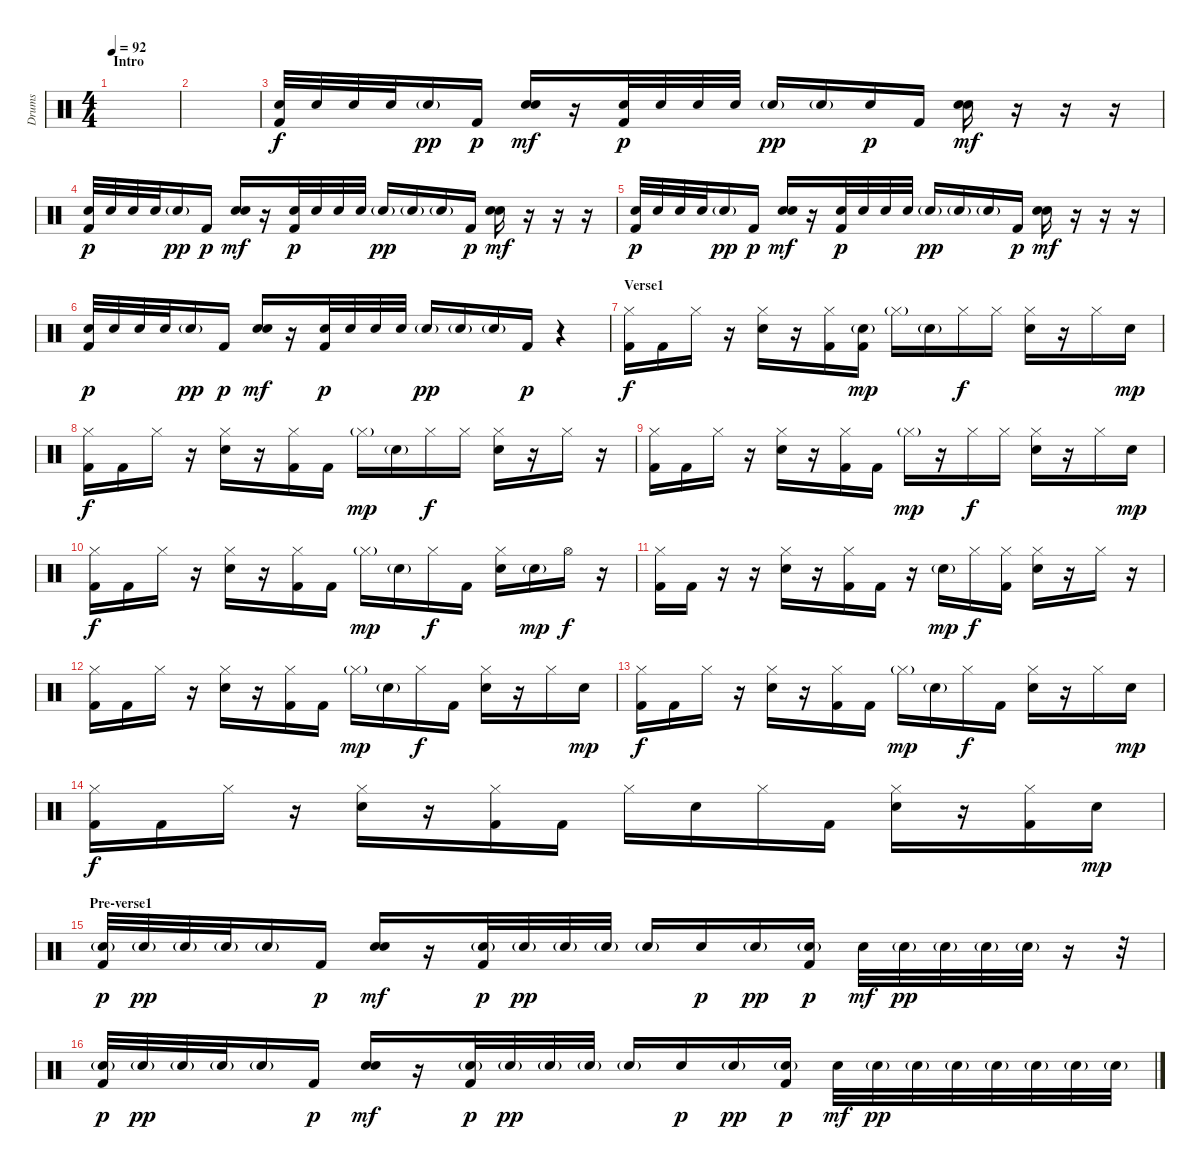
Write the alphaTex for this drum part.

\track ("Drums" "Drums") {instrument percussion}
\staff {score}
\articulation defaults
\ts (4 4)
\section ("" "Intro")
\tempo 92
\clef neutral
\ks c
|
|
("Electric Snare (hit)" "Kick (hit) 2").32 "Electric Snare (hit)".32 "Electric Snare (hit)".32 "Electric Snare (hit)".32 "Electric Snare (hit)"{g}.16{dy pp} "Kick (hit) 2".16{dy p} ("Electric Snare (hit)" "Electric Snare (hit)").16{dy mf} r.16 ("Electric Snare (hit)" "Kick (hit) 2").32{dy p} "Electric Snare (hit)".32 "Electric Snare (hit)".32 "Electric Snare (hit)".32 "Electric Snare (hit)"{g}.16{dy pp} "Electric Snare (hit)"{g}.16 "Electric Snare (hit)".16{dy p} "Kick (hit) 2".16 ("Electric Snare (hit)" "Electric Snare (hit)").16{dy mf} r.16 r.16 r.16 |
("Electric Snare (hit)" "Kick (hit) 2").32{dy p} "Electric Snare (hit)".32 "Electric Snare (hit)".32 "Electric Snare (hit)".32 "Electric Snare (hit)"{g}.16{dy pp} "Kick (hit) 2".16{dy p} ("Electric Snare (hit)" "Electric Snare (hit)").16{dy mf} r.16 ("Electric Snare (hit)" "Kick (hit) 2").32{dy p} "Electric Snare (hit)".32 "Electric Snare (hit)".32 "Electric Snare (hit)".32 "Electric Snare (hit)"{g}.16{dy pp} "Electric Snare (hit)"{g}.16 "Electric Snare (hit)"{g}.16 "Kick (hit) 2".16{dy p} ("Electric Snare (hit)" "Electric Snare (hit)").16{dy mf} r.16 r.16 r.16 |
("Electric Snare (hit)" "Kick (hit) 2").32{dy p} "Electric Snare (hit)".32 "Electric Snare (hit)".32 "Electric Snare (hit)".32 "Electric Snare (hit)"{g}.16{dy pp} "Kick (hit) 2".16{dy p} ("Electric Snare (hit)" "Electric Snare (hit)").16{dy mf} r.16 ("Electric Snare (hit)" "Kick (hit) 2").32{dy p} "Electric Snare (hit)".32 "Electric Snare (hit)".32 "Electric Snare (hit)".32 "Electric Snare (hit)"{g}.16{dy pp} "Electric Snare (hit)"{g}.16 "Electric Snare (hit)"{g}.16 "Kick (hit) 2".16{dy p} ("Electric Snare (hit)" "Electric Snare (hit)").16{dy mf} r.16 r.16 r.16 |
("Electric Snare (hit)" "Kick (hit) 2").32{dy p} "Electric Snare (hit)".32 "Electric Snare (hit)".32 "Electric Snare (hit)".32 "Electric Snare (hit)"{g}.16{dy pp} "Kick (hit) 2".16{dy p} ("Electric Snare (hit)" "Electric Snare (hit)").16{dy mf} r.16 ("Electric Snare (hit)" "Kick (hit) 2").32{dy p} "Electric Snare (hit)".32 "Electric Snare (hit)".32 "Electric Snare (hit)".32 "Electric Snare (hit)"{g}.16{dy pp} "Electric Snare (hit)"{g}.16 "Electric Snare (hit)"{g}.16 "Kick (hit) 2".16{dy p} r.4 |
\section ("" "Verse1")
("Hi-Hat (closed)" "Kick (hit) 2").16{dy f} "Kick (hit) 2".16 "Hi-Hat (closed)".16 r.16 ("Hi-Hat (closed)" "Snare (hit) 2").16 r.16 ("Hi-Hat (closed)" "Kick (hit) 2").16 ("Snare (hit) 2"{g} "Kick (hit) 2").16{dy mp} "Hi-Hat (closed)"{g}.16 "Snare (hit) 2"{g}.16 "Hi-Hat (closed)".16{dy f} "Hi-Hat (closed)".16 ("Hi-Hat (closed)" "Snare (hit) 2").16 r.16 "Hi-Hat (closed)".16 "Snare (hit) 2".16{dy mp} |
("Hi-Hat (closed)" "Kick (hit) 2").16{dy f} "Kick (hit) 2".16 "Hi-Hat (closed)".16 r.16 ("Hi-Hat (closed)" "Snare (hit) 2").16 r.16 ("Hi-Hat (closed)" "Kick (hit) 2").16 "Kick (hit) 2".16 "Hi-Hat (closed)"{g}.16{dy mp} "Snare (hit) 2"{g}.16 "Hi-Hat (closed)".16{dy f} "Hi-Hat (closed)".16 ("Hi-Hat (closed)" "Snare (hit) 2").16 r.16 "Hi-Hat (closed)".16 r.16 |
("Hi-Hat (closed)" "Kick (hit) 2").16 "Kick (hit) 2".16 "Hi-Hat (closed)".16 r.16 ("Hi-Hat (closed)" "Snare (hit) 2").16 r.16 ("Hi-Hat (closed)" "Kick (hit) 2").16 "Kick (hit) 2".16 "Hi-Hat (closed)"{g}.16{dy mp} r.16 "Hi-Hat (closed)".16{dy f} "Hi-Hat (closed)".16 ("Hi-Hat (closed)" "Snare (hit) 2").16 r.16 "Hi-Hat (closed)".16 "Snare (hit) 2".16{dy mp} |
("Hi-Hat (closed)" "Kick (hit) 2").16{dy f} "Kick (hit) 2".16 "Hi-Hat (closed)".16 r.16 ("Hi-Hat (closed)" "Snare (hit) 2").16 r.16 ("Hi-Hat (closed)" "Kick (hit) 2").16 "Kick (hit) 2".16 "Hi-Hat (closed)"{g}.16{dy mp} "Snare (hit) 2"{g}.16 "Hi-Hat (closed)".16{dy f} "Kick (hit) 2".16 ("Hi-Hat (closed)" "Snare (hit) 2").16 "Snare (hit) 2"{g}.16{dy mp} "Hi-Hat (open)".16{dy f} r.16 |
("Hi-Hat (closed)" "Kick (hit) 2").16 "Kick (hit) 2".16 r.16 r.16 ("Hi-Hat (closed)" "Snare (hit) 2").16 r.16 ("Hi-Hat (closed)" "Kick (hit) 2").16 "Kick (hit) 2".16 r.16 "Snare (hit) 2"{g}.16{dy mp} "Hi-Hat (closed)".16{dy f} ("Hi-Hat (closed)" "Kick (hit) 2").16 ("Hi-Hat (closed)" "Snare (hit) 2").16 r.16 "Hi-Hat (closed)".16 r.16 |
("Hi-Hat (closed)" "Kick (hit) 2").16 "Kick (hit) 2".16 "Hi-Hat (closed)".16 r.16 ("Hi-Hat (closed)" "Snare (hit) 2").16 r.16 ("Hi-Hat (closed)" "Kick (hit) 2").16 "Kick (hit) 2".16 "Hi-Hat (closed)"{g}.16{dy mp} "Snare (hit) 2"{g}.16 "Hi-Hat (closed)".16{dy f} "Kick (hit) 2".16 ("Hi-Hat (closed)" "Snare (hit) 2").16 r.16 "Hi-Hat (closed)".16 "Snare (hit) 2".16{dy mp} |
("Hi-Hat (closed)" "Kick (hit) 2").16{dy f} "Kick (hit) 2".16 "Hi-Hat (closed)".16 r.16 ("Hi-Hat (closed)" "Snare (hit) 2").16 r.16 ("Hi-Hat (closed)" "Kick (hit) 2").16 "Kick (hit) 2".16 "Hi-Hat (closed)"{g}.16{dy mp} "Snare (hit) 2"{g}.16 "Hi-Hat (closed)".16{dy f} "Kick (hit) 2".16 ("Hi-Hat (closed)" "Snare (hit) 2").16 r.16 "Hi-Hat (closed)".16 "Snare (hit) 2".16{dy mp} |
("Hi-Hat (closed)" "Kick (hit) 2").16{dy f} "Kick (hit) 2".16 "Hi-Hat (closed)".16 r.16 ("Hi-Hat (closed)" "Snare (hit) 2").16 r.16 ("Hi-Hat (closed)" "Kick (hit) 2").16 "Kick (hit) 2".16 "Hi-Hat (closed)".16 "Snare (hit) 2".16 "Hi-Hat (closed)".16 "Kick (hit) 2".16 ("Hi-Hat (closed)" "Snare (hit) 2").16 r.16 ("Hi-Hat (closed)" "Kick (hit) 2").16 "Snare (hit) 2".16{dy mp} |
\section ("" "Pre-verse1")
("Electric Snare (hit)"{g} "Kick (hit) 2").32{dy p} "Electric Snare (hit)"{g}.32{dy pp} "Electric Snare (hit)"{g}.32 "Electric Snare (hit)"{g}.32 "Electric Snare (hit)"{g}.16 "Kick (hit) 2".16{dy p} ("Electric Snare (hit)" "Electric Snare (hit)").16{dy mf} r.16 ("Electric Snare (hit)"{g} "Kick (hit) 2").32{dy p} "Electric Snare (hit)"{g}.32{dy pp} "Electric Snare (hit)"{g}.32 "Electric Snare (hit)"{g}.32 "Electric Snare (hit)"{g}.16 "Electric Snare (hit)".16{dy p} "Electric Snare (hit)"{g}.16{dy pp} ("Electric Snare (hit)"{g} "Kick (hit) 2").16{dy p} "Electric Snare (hit)".32{dy mf} "Electric Snare (hit)"{g}.32{dy pp} "Electric Snare (hit)"{g}.32 "Electric Snare (hit)"{g}.32 "Electric Snare (hit)"{g}.32 r.16 r.32 |
("Electric Snare (hit)"{g} "Kick (hit) 2").32{dy p} "Electric Snare (hit)"{g}.32{dy pp} "Electric Snare (hit)"{g}.32 "Electric Snare (hit)"{g}.32 "Electric Snare (hit)"{g}.16 "Kick (hit) 2".16{dy p} ("Electric Snare (hit)" "Electric Snare (hit)").16{dy mf} r.16 ("Electric Snare (hit)"{g} "Kick (hit) 2").32{dy p} "Electric Snare (hit)"{g}.32{dy pp} "Electric Snare (hit)"{g}.32 "Electric Snare (hit)"{g}.32 "Electric Snare (hit)"{g}.16 "Electric Snare (hit)".16{dy p} "Electric Snare (hit)"{g}.16{dy pp} ("Electric Snare (hit)"{g} "Kick (hit) 2").16{dy p} "Electric Snare (hit)".32{dy mf} "Electric Snare (hit)"{g}.32{dy pp} "Electric Snare (hit)"{g}.32 "Electric Snare (hit)"{g}.32 "Electric Snare (hit)"{g}.32 "Electric Snare (hit)"{g}.32 "Electric Snare (hit)"{g}.32 "Electric Snare (hit)"{g}.32
